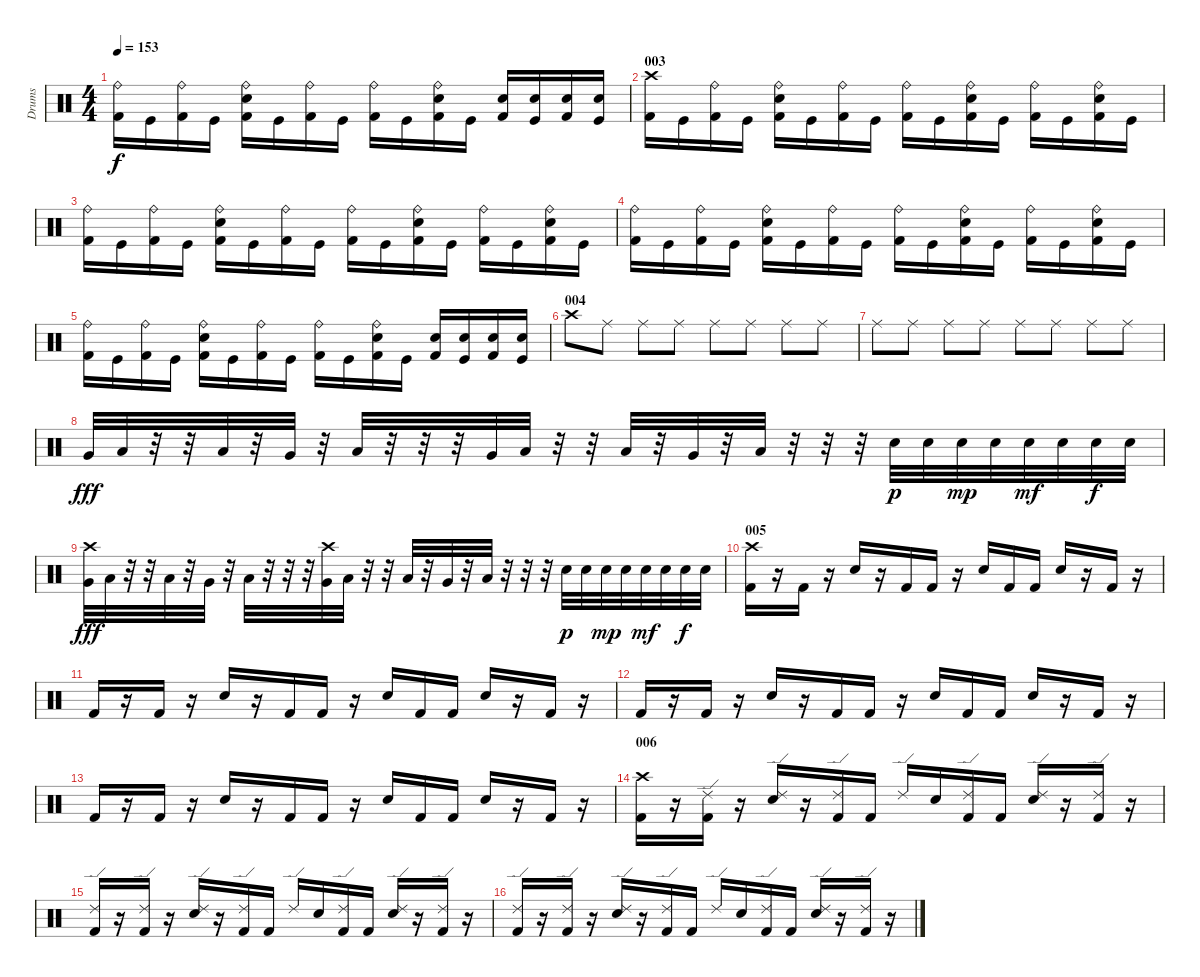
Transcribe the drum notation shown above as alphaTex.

\track ("Drums" "Drums") {instrument percussion}
\staff {score}
\articulation defaults
\ts (4 4)
\tempo 153
\clef neutral
\ks c
("Ride (bell)" "Kick (hit) 2").16{dy f} "Kick (hit)".16 ("Ride (bell)" "Kick (hit) 2").16 "Kick (hit)".16 ("Ride (bell)" "Electric Snare (hit)" "Kick (hit) 2").16 "Kick (hit)".16 ("Ride (bell)" "Kick (hit) 2").16 "Kick (hit)".16 ("Ride (bell)" "Kick (hit) 2").16 "Kick (hit)".16 ("Ride (bell)" "Electric Snare (hit)" "Kick (hit) 2").16 "Kick (hit)".16 ("Electric Snare (hit)" "Kick (hit) 2").16 ("Electric Snare (hit)" "Kick (hit)").16 ("Electric Snare (hit)" "Kick (hit) 2").16 ("Electric Snare (hit)" "Kick (hit)").16 |
\section ("" "003")
("Crash high (hit)" "Kick (hit) 2").16 "Kick (hit)".16 ("Ride (bell)" "Kick (hit) 2").16 "Kick (hit)".16 ("Ride (bell)" "Electric Snare (hit)" "Kick (hit) 2").16 "Kick (hit)".16 ("Ride (bell)" "Kick (hit) 2").16 "Kick (hit)".16 ("Ride (bell)" "Kick (hit) 2").16 "Kick (hit)".16 ("Ride (bell)" "Electric Snare (hit)" "Kick (hit) 2").16 "Kick (hit)".16 ("Ride (bell)" "Kick (hit) 2").16 "Kick (hit)".16 ("Ride (bell)" "Electric Snare (hit)" "Kick (hit) 2").16 "Kick (hit)".16 |
("Ride (bell)" "Kick (hit) 2").16 "Kick (hit)".16 ("Ride (bell)" "Kick (hit) 2").16 "Kick (hit)".16 ("Ride (bell)" "Electric Snare (hit)" "Kick (hit) 2").16 "Kick (hit)".16 ("Ride (bell)" "Kick (hit) 2").16 "Kick (hit)".16 ("Ride (bell)" "Kick (hit) 2").16 "Kick (hit)".16 ("Ride (bell)" "Electric Snare (hit)" "Kick (hit) 2").16 "Kick (hit)".16 ("Ride (bell)" "Kick (hit) 2").16 "Kick (hit)".16 ("Ride (bell)" "Electric Snare (hit)" "Kick (hit) 2").16 "Kick (hit)".16 |
("Ride (bell)" "Kick (hit) 2").16 "Kick (hit)".16 ("Ride (bell)" "Kick (hit) 2").16 "Kick (hit)".16 ("Ride (bell)" "Electric Snare (hit)" "Kick (hit) 2").16 "Kick (hit)".16 ("Ride (bell)" "Kick (hit) 2").16 "Kick (hit)".16 ("Ride (bell)" "Kick (hit) 2").16 "Kick (hit)".16 ("Ride (bell)" "Electric Snare (hit)" "Kick (hit) 2").16 "Kick (hit)".16 ("Ride (bell)" "Kick (hit) 2").16 "Kick (hit)".16 ("Ride (bell)" "Electric Snare (hit)" "Kick (hit) 2").16 "Kick (hit)".16 |
("Ride (bell)" "Kick (hit) 2").16 "Kick (hit)".16 ("Ride (bell)" "Kick (hit) 2").16 "Kick (hit)".16 ("Ride (bell)" "Electric Snare (hit)" "Kick (hit) 2").16 "Kick (hit)".16 ("Ride (bell)" "Kick (hit) 2").16 "Kick (hit)".16 ("Ride (bell)" "Kick (hit) 2").16 "Kick (hit)".16 ("Ride (bell)" "Electric Snare (hit)" "Kick (hit) 2").16 "Kick (hit)".16 ("Electric Snare (hit)" "Kick (hit) 2").16 ("Electric Snare (hit)" "Kick (hit)").16 ("Electric Snare (hit)" "Kick (hit) 2").16 ("Electric Snare (hit)" "Kick (hit)").16 |
\section ("" "004")
"Crash high (hit)".8 "Ride (middle)".8 "Ride (middle)".8 "Ride (middle)".8 "Ride (middle)".8 "Ride (middle)".8 "Ride (middle)".8 "Ride (middle)".8 |
"Ride (middle)".8 "Ride (middle)".8 "Ride (middle)".8 "Ride (middle)".8 "Ride (middle)".8 "Ride (middle)".8 "Ride (middle)".8 "Ride (middle)".8 |
"Very Low Tom (hit)".32{dy fff} "Low Tom (hit)".32 r.32 r.32 "Low Tom (hit)".32 r.32 "Very Low Tom (hit)".32 r.32 "Low Floor Tom (hit)".32 r.32 r.32 r.32 "Very Low Tom (hit)".32 "Low Tom (hit)".32 r.32 r.32 "Low Tom (hit)".32 r.32 "Very Low Tom (hit)".32 r.32 "Low Floor Tom (hit)".32 r.32 r.32 r.32 "Electric Snare (hit)".32{dy p} "Electric Snare (hit)".32 "Electric Snare (hit)".32{dy mp} "Electric Snare (hit)".32 "Electric Snare (hit)".32{dy mf} "Electric Snare (hit)".32 "Electric Snare (hit)".32{dy f} "Electric Snare (hit)".32 |
("Very Low Tom (hit)" "Crash high (hit)").32{dy fff} "Low Tom (hit)".32 r.32 r.32 "Low Tom (hit)".32 r.32 "Very Low Tom (hit)".32 r.32 "Low Floor Tom (hit)".32 r.32 r.32 r.32 ("Very Low Tom (hit)" "Crash high (hit)").32 "Low Tom (hit)".32 r.32 r.32 "Low Tom (hit)".32 r.32 "Very Low Tom (hit)".32 r.32 "Low Floor Tom (hit)".32 r.32 r.32 r.32 "Electric Snare (hit)".32{dy p} "Electric Snare (hit)".32 "Electric Snare (hit)".32{dy mp} "Electric Snare (hit)".32 "Electric Snare (hit)".32{dy mf} "Electric Snare (hit)".32 "Electric Snare (hit)".32{dy f} "Electric Snare (hit)".32 |
\section ("" "005")
("Kick (hit) 2" "Crash high (hit)").16 r.16 "Kick (hit) 2".16 r.16 "Electric Snare (hit)".16 r.16 "Kick (hit) 2".16 "Kick (hit) 2".16 r.16 "Electric Snare (hit)".16 "Kick (hit) 2".16 "Kick (hit) 2".16 "Electric Snare (hit)".16 r.16 "Kick (hit) 2".16 r.16 |
"Kick (hit) 2".16 r.16 "Kick (hit) 2".16 r.16 "Electric Snare (hit)".16 r.16 "Kick (hit) 2".16 "Kick (hit) 2".16 r.16 "Electric Snare (hit)".16 "Kick (hit) 2".16 "Kick (hit) 2".16 "Electric Snare (hit)".16 r.16 "Kick (hit) 2".16 r.16 |
"Kick (hit) 2".16 r.16 "Kick (hit) 2".16 r.16 "Electric Snare (hit)".16 r.16 "Kick (hit) 2".16 "Kick (hit) 2".16 r.16 "Electric Snare (hit)".16 "Kick (hit) 2".16 "Kick (hit) 2".16 "Electric Snare (hit)".16 r.16 "Kick (hit) 2".16 r.16 |
"Kick (hit) 2".16 r.16 "Kick (hit) 2".16 r.16 "Electric Snare (hit)".16 r.16 "Kick (hit) 2".16 "Kick (hit) 2".16 r.16 "Electric Snare (hit)".16 "Kick (hit) 2".16 "Kick (hit) 2".16 "Electric Snare (hit)".16 r.16 "Kick (hit) 2".16 r.16 |
\section ("" "006")
("Kick (hit) 2" "Crash high (hit)").16 r.16 ("Kick (hit) 2" "Ride (edge) 2").16 r.16 ("Electric Snare (hit)" "Ride (edge) 2").16 r.16 ("Kick (hit) 2" "Ride (edge) 2").16 "Kick (hit) 2".16 "Ride (edge) 2".16 "Electric Snare (hit)".16 ("Kick (hit) 2" "Ride (edge) 2").16 "Kick (hit) 2".16 ("Electric Snare (hit)" "Ride (edge) 2").16 r.16 ("Kick (hit) 2" "Ride (edge) 2").16 r.16 |
("Kick (hit) 2" "Ride (edge) 2").16 r.16 ("Kick (hit) 2" "Ride (edge) 2").16 r.16 ("Electric Snare (hit)" "Ride (edge) 2").16 r.16 ("Kick (hit) 2" "Ride (edge) 2").16 "Kick (hit) 2".16 "Ride (edge) 2".16 "Electric Snare (hit)".16 ("Kick (hit) 2" "Ride (edge) 2").16 "Kick (hit) 2".16 ("Electric Snare (hit)" "Ride (edge) 2").16 r.16 ("Kick (hit) 2" "Ride (edge) 2").16 r.16 |
("Kick (hit) 2" "Ride (edge) 2").16 r.16 ("Kick (hit) 2" "Ride (edge) 2").16 r.16 ("Electric Snare (hit)" "Ride (edge) 2").16 r.16 ("Kick (hit) 2" "Ride (edge) 2").16 "Kick (hit) 2".16 "Ride (edge) 2".16 "Electric Snare (hit)".16 ("Kick (hit) 2" "Ride (edge) 2").16 "Kick (hit) 2".16 ("Electric Snare (hit)" "Ride (edge) 2").16 r.16 ("Kick (hit) 2" "Ride (edge) 2").16 r.16
